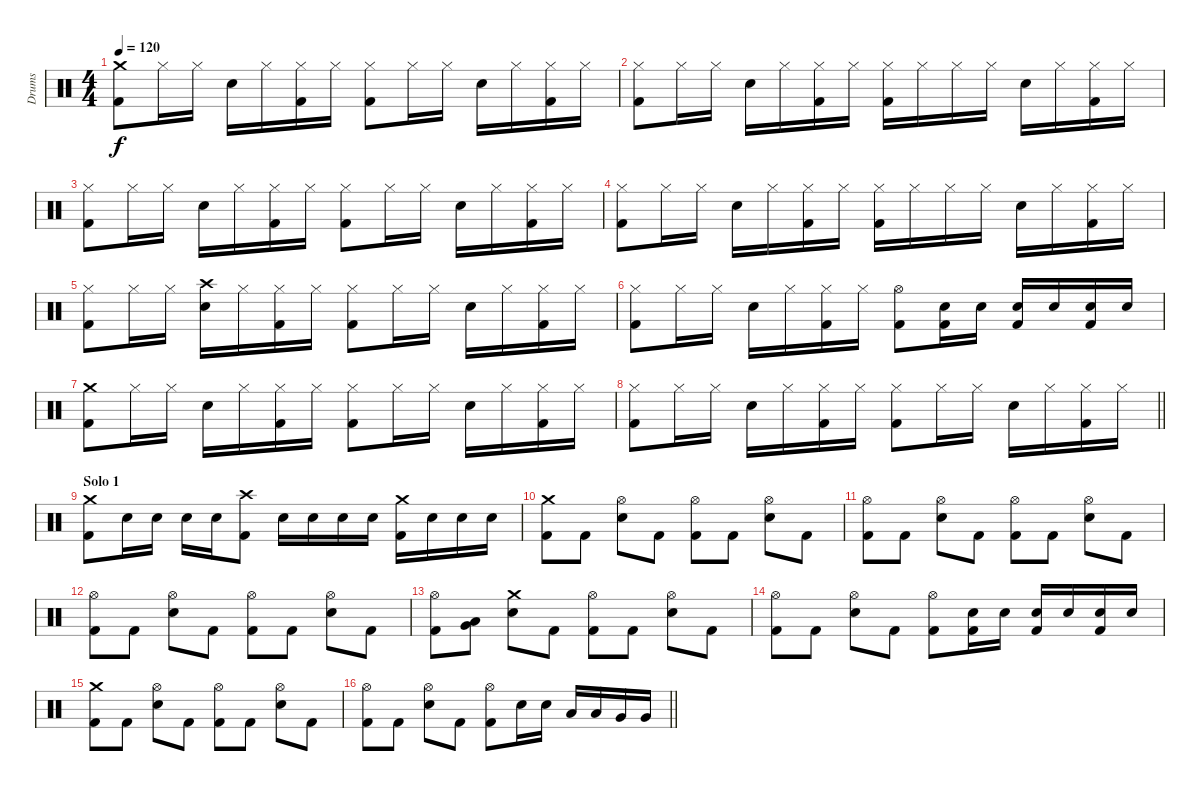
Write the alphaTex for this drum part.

\track ("Drums" "Drums") {instrument percussion}
\staff {score}
\articulation defaults
\ts (4 4)
\tempo 120
\clef neutral
\ks c
("Crash medium (hit)" "Kick (hit) 2").8{dy f} "Hi-Hat (closed)".16 "Hi-Hat (closed)".16 "Electric Snare (hit)".16 "Hi-Hat (closed)".16 ("Hi-Hat (closed)" "Kick (hit) 2").16 "Hi-Hat (closed)".16 ("Hi-Hat (closed)" "Kick (hit) 2").8 "Hi-Hat (closed)".16 "Hi-Hat (closed)".16 "Electric Snare (hit)".16 "Hi-Hat (closed)".16 ("Hi-Hat (closed)" "Kick (hit) 2").16 "Hi-Hat (closed)".16 |
("Hi-Hat (closed)" "Kick (hit) 2").8 "Hi-Hat (closed)".16 "Hi-Hat (closed)".16 "Electric Snare (hit)".16 "Hi-Hat (closed)".16 ("Hi-Hat (closed)" "Kick (hit) 2").16 "Hi-Hat (closed)".16 ("Hi-Hat (closed)" "Kick (hit) 2").16 "Hi-Hat (closed)".16 "Hi-Hat (closed)".16 "Hi-Hat (closed)".16 "Electric Snare (hit)".16 "Hi-Hat (closed)".16 ("Hi-Hat (closed)" "Kick (hit) 2").16 "Hi-Hat (closed)".16 |
("Hi-Hat (closed)" "Kick (hit) 2").8 "Hi-Hat (closed)".16 "Hi-Hat (closed)".16 "Electric Snare (hit)".16 "Hi-Hat (closed)".16 ("Hi-Hat (closed)" "Kick (hit) 2").16 "Hi-Hat (closed)".16 ("Hi-Hat (closed)" "Kick (hit) 2").8 "Hi-Hat (closed)".16 "Hi-Hat (closed)".16 "Electric Snare (hit)".16 "Hi-Hat (closed)".16 ("Hi-Hat (closed)" "Kick (hit) 2").16 "Hi-Hat (closed)".16 |
("Hi-Hat (closed)" "Kick (hit) 2").8 "Hi-Hat (closed)".16 "Hi-Hat (closed)".16 "Electric Snare (hit)".16 "Hi-Hat (closed)".16 ("Hi-Hat (closed)" "Kick (hit) 2").16 "Hi-Hat (closed)".16 ("Hi-Hat (closed)" "Kick (hit) 2").16 "Hi-Hat (closed)".16 "Hi-Hat (closed)".16 "Hi-Hat (closed)".16 "Electric Snare (hit)".16 "Hi-Hat (closed)".16 ("Hi-Hat (closed)" "Kick (hit) 2").16 "Hi-Hat (closed)".16 |
("Hi-Hat (closed)" "Kick (hit) 2").8 "Hi-Hat (closed)".16 "Hi-Hat (closed)".16 ("Crash high (hit)" "Electric Snare (hit)").16 "Hi-Hat (closed)".16 ("Hi-Hat (closed)" "Kick (hit) 2").16 "Hi-Hat (closed)".16 ("Hi-Hat (closed)" "Kick (hit) 2").8 "Hi-Hat (closed)".16 "Hi-Hat (closed)".16 "Electric Snare (hit)".16 "Hi-Hat (closed)".16 ("Hi-Hat (closed)" "Kick (hit) 2").16 "Hi-Hat (closed)".16 |
("Hi-Hat (closed)" "Kick (hit) 2").8 "Hi-Hat (closed)".16 "Hi-Hat (closed)".16 "Electric Snare (hit)".16 "Hi-Hat (closed)".16 ("Hi-Hat (closed)" "Kick (hit) 2").16 "Hi-Hat (closed)".16 ("Hi-Hat (open)" "Kick (hit) 2").8 ("Electric Snare (hit)" "Kick (hit) 2").16 "Electric Snare (hit)".16 ("Electric Snare (hit)" "Kick (hit) 2").16 "Electric Snare (hit)".16 ("Electric Snare (hit)" "Kick (hit) 2").16 "Electric Snare (hit)".16 |
("Crash medium (hit)" "Kick (hit) 2").8 "Hi-Hat (closed)".16 "Hi-Hat (closed)".16 "Electric Snare (hit)".16 "Hi-Hat (closed)".16 ("Hi-Hat (closed)" "Kick (hit) 2").16 "Hi-Hat (closed)".16 ("Hi-Hat (closed)" "Kick (hit) 2").8 "Hi-Hat (closed)".16 "Hi-Hat (closed)".16 "Electric Snare (hit)".16 "Hi-Hat (closed)".16 ("Hi-Hat (closed)" "Kick (hit) 2").16 "Hi-Hat (closed)".16 |
\barLineRight lightlight
("Hi-Hat (closed)" "Kick (hit) 2").8 "Hi-Hat (closed)".16 "Hi-Hat (closed)".16 "Electric Snare (hit)".16 "Hi-Hat (closed)".16 ("Hi-Hat (closed)" "Kick (hit) 2").16 "Hi-Hat (closed)".16 ("Hi-Hat (closed)" "Kick (hit) 2").8 "Hi-Hat (closed)".16 "Hi-Hat (closed)".16 "Electric Snare (hit)".16 "Hi-Hat (closed)".16 ("Hi-Hat (closed)" "Kick (hit) 2").16 "Hi-Hat (closed)".16 |
\section ("" "Solo 1")
("Crash medium (hit)" "Kick (hit) 2").8 "Electric Snare (hit)".16 "Electric Snare (hit)".16 "Electric Snare (hit)".16 "Electric Snare (hit)".16 ("Crash high (hit)" "Kick (hit) 2").8 "Electric Snare (hit)".16 "Electric Snare (hit)".16 "Electric Snare (hit)".16 "Electric Snare (hit)".16 ("Crash medium (hit)" "Kick (hit) 2").16 "Electric Snare (hit)".16 "Electric Snare (hit)".16 "Electric Snare (hit)".16 |
("Crash medium (hit)" "Kick (hit) 2").8 "Kick (hit) 2".8 ("Hi-Hat (open)" "Electric Snare (hit)").8 "Kick (hit) 2".8 ("Hi-Hat (open)" "Kick (hit) 2").8 "Kick (hit) 2".8 ("Hi-Hat (open)" "Electric Snare (hit)").8 "Kick (hit) 2".8 |
("Hi-Hat (open)" "Kick (hit) 2").8 "Kick (hit) 2".8 ("Hi-Hat (open)" "Electric Snare (hit)").8 "Kick (hit) 2".8 ("Hi-Hat (open)" "Kick (hit) 2").8 "Kick (hit) 2".8 ("Hi-Hat (open)" "Electric Snare (hit)").8 "Kick (hit) 2".8 |
("Hi-Hat (open)" "Kick (hit) 2").8 "Kick (hit) 2".8 ("Hi-Hat (open)" "Electric Snare (hit)").8 "Kick (hit) 2".8 ("Hi-Hat (open)" "Kick (hit) 2").8 "Kick (hit) 2".8 ("Hi-Hat (open)" "Electric Snare (hit)").8 "Kick (hit) 2".8 |
("Hi-Hat (open)" "Kick (hit) 2").8 ("Low Tom (hit)" "Very Low Tom (hit)").8 ("Crash medium (hit)" "Electric Snare (hit)").8 "Kick (hit) 2".8 ("Hi-Hat (open)" "Kick (hit) 2").8 "Kick (hit) 2".8 ("Hi-Hat (open)" "Electric Snare (hit)").8 "Kick (hit) 2".8 |
("Hi-Hat (open)" "Kick (hit) 2").8 "Kick (hit) 2".8 ("Hi-Hat (open)" "Electric Snare (hit)").8 "Kick (hit) 2".8 ("Hi-Hat (open)" "Kick (hit) 2").8 ("Electric Snare (hit)" "Kick (hit) 2").16 "Electric Snare (hit)".16 ("Electric Snare (hit)" "Kick (hit) 2").16 "Electric Snare (hit)".16 ("Electric Snare (hit)" "Kick (hit) 2").16 "Electric Snare (hit)".16 |
("Crash medium (hit)" "Kick (hit) 2").8 "Kick (hit) 2".8 ("Hi-Hat (open)" "Electric Snare (hit)").8 "Kick (hit) 2".8 ("Hi-Hat (open)" "Kick (hit) 2").8 "Kick (hit) 2".8 ("Hi-Hat (open)" "Electric Snare (hit)").8 "Kick (hit) 2".8 |
\barLineRight lightlight
("Hi-Hat (open)" "Kick (hit) 2").8 "Kick (hit) 2".8 ("Hi-Hat (open)" "Electric Snare (hit)").8 "Kick (hit) 2".8 ("Hi-Hat (open)" "Kick (hit) 2").8 "Electric Snare (hit)".16 "Electric Snare (hit)".16 "Low Tom (hit)".16 "Low Tom (hit)".16 "Very Low Tom (hit)".16 "Very Low Tom (hit)".16
